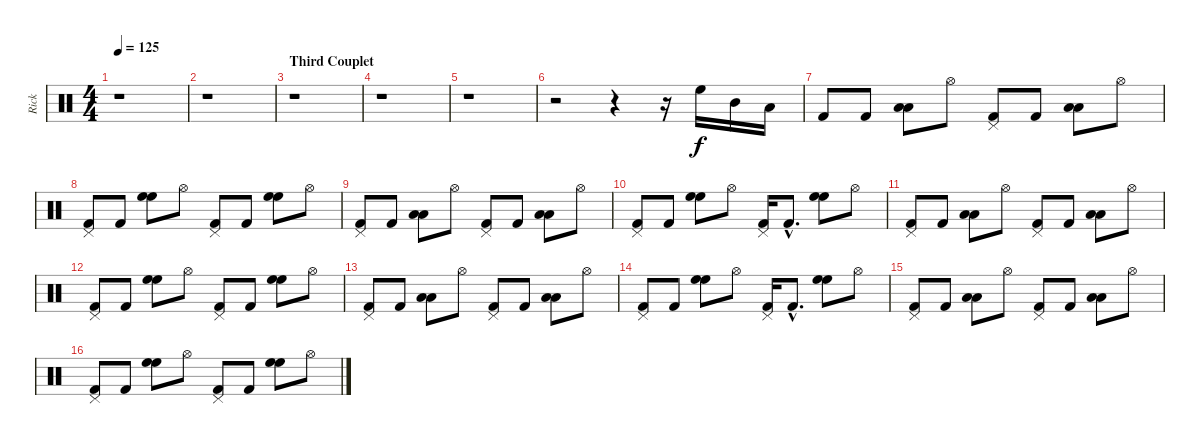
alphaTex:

\track ("Rick" "Rick") {instrument percussion}
\staff {score}
\articulation defaults
\ts (4 4)
\tempo 125
\clef neutral
\ks c
r.1{dy f} |
r.1 |
\section ("" "Third Couplet")
r.1 |
r.1 |
r.1 |
r.2 r.4 r.16 "High Floor Tom (hit)".16 "Mid Tom (hit)".16 "Low Floor Tom (hit)".16 |
"Kick (hit) 2".8 "Kick (hit) 2".8 ("Low Tom (hit)" "Low Tom (hit)").8 "Hi-Hat (open)".8 ("Pedal Hi-Hat (hit)" "Kick (hit) 2").8 "Kick (hit) 2".8 ("Low Tom (hit)" "Low Tom (hit)").8 "Hi-Hat (open)".8 |
("Pedal Hi-Hat (hit)" "Kick (hit) 2").8 "Kick (hit) 2".8 ("High Floor Tom (hit)" "High Floor Tom (hit)").8 "Hi-Hat (open)".8 ("Pedal Hi-Hat (hit)" "Kick (hit) 2").8 "Kick (hit) 2".8 ("High Floor Tom (hit)" "High Floor Tom (hit)").8 "Hi-Hat (open)".8 |
("Pedal Hi-Hat (hit)" "Kick (hit) 2").8 "Kick (hit) 2".8 ("Low Tom (hit)" "Low Tom (hit)").8 "Hi-Hat (open)".8 ("Pedal Hi-Hat (hit)" "Kick (hit) 2").8 "Kick (hit) 2".8 ("Low Tom (hit)" "Low Tom (hit)").8 "Hi-Hat (open)".8 |
("Pedal Hi-Hat (hit)" "Kick (hit) 2").8 "Kick (hit) 2".8 ("High Floor Tom (hit)" "High Floor Tom (hit)").8 "Hi-Hat (open)".8 ("Pedal Hi-Hat (hit)" "Kick (hit) 2").16 "Kick (hit) 2"{hac}.8{d} ("High Floor Tom (hit)" "High Floor Tom (hit)").8 "Hi-Hat (open)".8 |
("Pedal Hi-Hat (hit)" "Kick (hit) 2").8 "Kick (hit) 2".8 ("Low Tom (hit)" "Low Tom (hit)").8 "Hi-Hat (open)".8 ("Pedal Hi-Hat (hit)" "Kick (hit) 2").8 "Kick (hit) 2".8 ("Low Tom (hit)" "Low Tom (hit)").8 "Hi-Hat (open)".8 |
("Pedal Hi-Hat (hit)" "Kick (hit) 2").8 "Kick (hit) 2".8 ("High Floor Tom (hit)" "High Floor Tom (hit)").8 "Hi-Hat (open)".8 ("Pedal Hi-Hat (hit)" "Kick (hit) 2").8 "Kick (hit) 2".8 ("High Floor Tom (hit)" "High Floor Tom (hit)").8 "Hi-Hat (open)".8 |
("Pedal Hi-Hat (hit)" "Kick (hit) 2").8 "Kick (hit) 2".8 ("Low Tom (hit)" "Low Tom (hit)").8 "Hi-Hat (open)".8 ("Pedal Hi-Hat (hit)" "Kick (hit) 2").8 "Kick (hit) 2".8 ("Low Tom (hit)" "Low Tom (hit)").8 "Hi-Hat (open)".8 |
("Pedal Hi-Hat (hit)" "Kick (hit) 2").8 "Kick (hit) 2".8 ("High Floor Tom (hit)" "High Floor Tom (hit)").8 "Hi-Hat (open)".8 ("Pedal Hi-Hat (hit)" "Kick (hit) 2").16 "Kick (hit) 2"{hac}.8{d} ("High Floor Tom (hit)" "High Floor Tom (hit)").8 "Hi-Hat (open)".8 |
("Pedal Hi-Hat (hit)" "Kick (hit) 2").8 "Kick (hit) 2".8 ("Low Tom (hit)" "Low Tom (hit)").8 "Hi-Hat (open)".8 ("Pedal Hi-Hat (hit)" "Kick (hit) 2").8 "Kick (hit) 2".8 ("Low Tom (hit)" "Low Tom (hit)").8 "Hi-Hat (open)".8 |
("Pedal Hi-Hat (hit)" "Kick (hit) 2").8 "Kick (hit) 2".8 ("High Floor Tom (hit)" "High Floor Tom (hit)").8 "Hi-Hat (open)".8 ("Pedal Hi-Hat (hit)" "Kick (hit) 2").8 "Kick (hit) 2".8 ("High Floor Tom (hit)" "High Floor Tom (hit)").8 "Hi-Hat (open)".8
